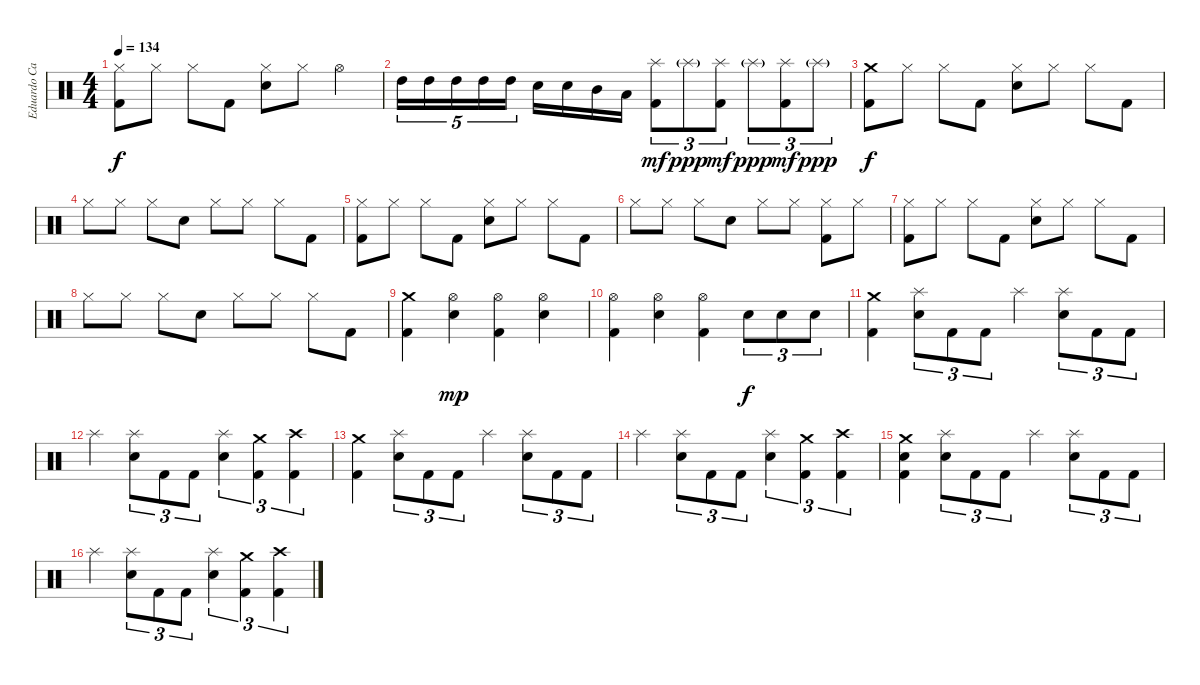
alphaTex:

\track ("Eduardo Carrillo" "Eduardo Ca") {instrument percussion}
\staff {score}
\articulation defaults
\ts (4 4)
\tempo 134
\clef neutral
\ks c
("Kick (hit) 2" "Hi-Hat (closed)").8{dy f} "Hi-Hat (closed)".8 "Hi-Hat (closed)".8 "Kick (hit) 2".8 ("Hi-Hat (closed)" "Snare (hit) 2").8 "Hi-Hat (closed)".8 "Hi-Hat (open)".4 |
"High Tom (hit)".16{tu (5 4)} "High Tom (hit)".16{tu (5 4)} "High Tom (hit)".16{tu (5 4)} "High Tom (hit)".16{tu (5 4)} "High Tom (hit)".16{tu (5 4)} "Snare (hit) 2".16 "Snare (hit) 2".16 "Mid Tom (hit)".16 "Low Tom (hit)".16 ("Kick (hit) 2" "Splash (hit)").8{tu (3 2) dy mf} "Splash (hit)"{g}.8{tu (3 2) dy ppp} ("Kick (hit) 2" "Splash (hit)").8{tu (3 2) dy mf} "Splash (hit)"{g}.8{tu (3 2) dy ppp} ("Kick (hit) 2" "Splash (hit)").8{tu (3 2) dy mf} "Splash (hit)"{g}.8{tu (3 2) dy ppp} |
("Kick (hit) 2" "Crash medium (hit)").8{dy f} "Hi-Hat (closed)".8 "Hi-Hat (closed)".8 "Kick (hit) 2".8 ("Hi-Hat (closed)" "Snare (hit) 2").8 "Hi-Hat (closed)".8 "Hi-Hat (closed)".8 "Kick (hit) 2".8 |
"Hi-Hat (closed)".8 "Hi-Hat (closed)".8 "Hi-Hat (closed)".8 "Snare (hit) 2".8 "Hi-Hat (closed)".8 "Hi-Hat (closed)".8 "Hi-Hat (closed)".8 "Kick (hit) 2".8 |
("Kick (hit) 2" "Hi-Hat (closed)").8 "Hi-Hat (closed)".8 "Hi-Hat (closed)".8 "Kick (hit) 2".8 ("Hi-Hat (closed)" "Snare (hit) 2").8 "Hi-Hat (closed)".8 "Hi-Hat (closed)".8 "Kick (hit) 2".8 |
"Hi-Hat (closed)".8 "Hi-Hat (closed)".8 "Hi-Hat (closed)".8 "Snare (hit) 2".8 "Hi-Hat (closed)".8 "Hi-Hat (closed)".8 ("Kick (hit) 2" "Hi-Hat (closed)").8 "Hi-Hat (closed)".8 |
("Kick (hit) 2" "Hi-Hat (closed)").8 "Hi-Hat (closed)".8 "Hi-Hat (closed)".8 "Kick (hit) 2".8 ("Hi-Hat (closed)" "Snare (hit) 2").8 "Hi-Hat (closed)".8 "Hi-Hat (closed)".8 "Kick (hit) 2".8 |
"Hi-Hat (closed)".8 "Hi-Hat (closed)".8 "Hi-Hat (closed)".8 "Snare (hit) 2".8 "Hi-Hat (closed)".8 "Hi-Hat (closed)".8 "Hi-Hat (closed)".8 "Kick (hit) 2".8 |
("Kick (hit) 2" "Crash medium (hit)").4 ("Hi-Hat (open)" "Snare (hit) 2").4{dy mp} ("Kick (hit) 2" "Hi-Hat (open)").4 ("Hi-Hat (open)" "Snare (hit) 2").4 |
("Kick (hit) 2" "Hi-Hat (open)").4 ("Hi-Hat (open)" "Snare (hit) 2").4 ("Kick (hit) 2" "Hi-Hat (open)").4 "Snare (hit) 2".8{tu (3 2) dy f} "Snare (hit) 2".8{tu (3 2)} "Snare (hit) 2".8{tu (3 2)} |
("Kick (hit) 2" "Crash medium (hit)").4 ("Splash (hit)" "Snare (hit) 2").8{tu (3 2)} "Kick (hit) 2".8{tu (3 2)} "Kick (hit) 2".8{tu (3 2)} "Splash (hit)".4 ("Splash (hit)" "Snare (hit) 2").8{tu (3 2)} "Kick (hit) 2".8{tu (3 2)} "Kick (hit) 2".8{tu (3 2)} |
"Splash (hit)".4 ("Splash (hit)" "Snare (hit) 2").8{tu (3 2)} "Kick (hit) 2".8{tu (3 2)} "Kick (hit) 2".8{tu (3 2)} ("Splash (hit)" "Snare (hit) 2").4{tu (3 2)} ("Kick (hit) 2" "Crash medium (hit)").4{tu (3 2)} ("Kick (hit) 2" "Crash high (hit)").4{tu (3 2)} |
("Kick (hit) 2" "Crash medium (hit)").4 ("Splash (hit)" "Snare (hit) 2").8{tu (3 2)} "Kick (hit) 2".8{tu (3 2)} "Kick (hit) 2".8{tu (3 2)} "Splash (hit)".4 ("Splash (hit)" "Snare (hit) 2").8{tu (3 2)} "Kick (hit) 2".8{tu (3 2)} "Kick (hit) 2".8{tu (3 2)} |
"Splash (hit)".4 ("Splash (hit)" "Snare (hit) 2").8{tu (3 2)} "Kick (hit) 2".8{tu (3 2)} "Kick (hit) 2".8{tu (3 2)} ("Splash (hit)" "Snare (hit) 2").4{tu (3 2)} ("Kick (hit) 2" "Crash medium (hit)").4{tu (3 2)} ("Kick (hit) 2" "Crash high (hit)").4{tu (3 2)} |
("Kick (hit) 2" "Crash medium (hit)" "Snare (hit) 2").4 ("Splash (hit)" "Snare (hit) 2").8{tu (3 2)} "Kick (hit) 2".8{tu (3 2)} "Kick (hit) 2".8{tu (3 2)} "Splash (hit)".4 ("Splash (hit)" "Snare (hit) 2").8{tu (3 2)} "Kick (hit) 2".8{tu (3 2)} "Kick (hit) 2".8{tu (3 2)} |
"Splash (hit)".4 ("Splash (hit)" "Snare (hit) 2").8{tu (3 2)} "Kick (hit) 2".8{tu (3 2)} "Kick (hit) 2".8{tu (3 2)} ("Splash (hit)" "Snare (hit) 2").4{tu (3 2)} ("Kick (hit) 2" "Crash medium (hit)").4{tu (3 2)} ("Kick (hit) 2" "Crash high (hit)").4{tu (3 2)}
